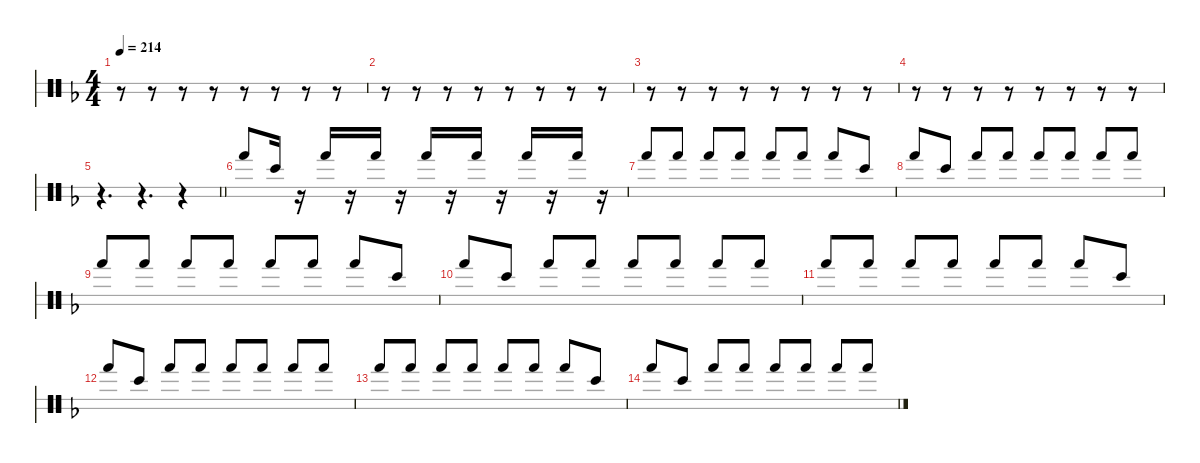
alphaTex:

\hideDynamics
\bracketExtendMode nobrackets
\singleTrackTrackNamePolicy hidden
\multiTrackTrackNamePolicy hidden
\firstSystemTrackNameMode fullname
\firstSystemTrackNameOrientation horizontal
\otherSystemsTrackNameOrientation horizontal
\track ("Bongos" "bngKit") {instrument percussion}
\staff {score 2}
\articulation defaults
\ts (4 4)
\tempo 214
\clef neutral
\ks dminor
r.8{dy p beam Down} r.8{beam Down} r.8{beam Down} r.8{beam Down} r.8{beam Down} r.8{beam Down} r.8{beam Down} r.8{beam Down} |
r.8{beam Down} r.8{beam Down} r.8{beam Down} r.8{beam Down} r.8{beam Down} r.8{beam Down} r.8{beam Down} r.8{beam Down} |
r.8{beam Down} r.8{beam Down} r.8{beam Down} r.8{beam Down} r.8{beam Down} r.8{beam Down} r.8{beam Down} r.8{beam Down} |
r.8{beam Down} r.8{beam Down} r.8{beam Down} r.8{beam Down} r.8{beam Down} r.8{beam Down} r.8{beam Down} r.8{beam Down} |
\barLineRight lightlight
r.4{d beam Down} r.4{d beam Down} r.4{beam Down} |
"Hand (hit)"{acc forcenatural}.8{dy f beam Up} "Bongo High (hit)"{acc forcenatural}.16{dy pp beam Up} r.16{beam Up} "Hand (hit)"{acc forcenatural}.16{dy p beam Up} r.16{beam Up} "Hand (hit)"{acc forcenatural}.16{dy mp beam Up} r.16{beam Up} "Hand (hit)"{acc forcenatural}.16{dy mf beam Up} r.16{beam Up} "Hand (hit)"{acc forcenatural}.16{dy mp beam Up} r.16{beam Up} "Hand (hit)"{acc forcenatural}.16{dy p beam Up} r.16{beam Up} "Hand (hit)"{acc forcenatural}.16{dy pp beam Up} r.16{beam Up} |
"Hand (hit)"{acc forcenatural}.8{dy p beam Up} "Hand (hit)"{acc forcenatural}.8{dy pp beam Up} "Hand (hit)"{acc forcenatural}.8{beam Up} "Hand (hit)"{acc forcenatural}.8{dy mp beam Up} "Hand (hit)"{acc forcenatural}.8{dy p beam Up} "Hand (hit)"{acc forcenatural}.8{beam Up} "Hand (hit)"{acc forcenatural}.8{dy mp beam Up} "Bongo High (hit)"{acc forcenatural}.8{dy mf beam Up} |
"Hand (hit)"{acc forcenatural}.8{dy f beam Up} "Bongo High (hit)"{acc forcenatural}.8{dy p beam Up} "Hand (hit)"{acc forcenatural}.8{dy pp beam Up} "Hand (hit)"{acc forcenatural}.8{dy mp beam Up} "Hand (hit)"{acc forcenatural}.8{dy p beam Up} "Hand (hit)"{acc forcenatural}.8{beam Up} "Hand (hit)"{acc forcenatural}.8{dy mp beam Up} "Hand (hit)"{acc forcenatural}.8{dy pp beam Up} |
"Hand (hit)"{acc forcenatural}.8{dy mp beam Up} "Hand (hit)"{acc forcenatural}.8{dy pp beam Up} "Hand (hit)"{acc forcenatural}.8{beam Up} "Hand (hit)"{acc forcenatural}.8{dy mp beam Up} "Hand (hit)"{acc forcenatural}.8{dy p beam Up} "Hand (hit)"{acc forcenatural}.8{beam Up} "Hand (hit)"{acc forcenatural}.8{dy mp beam Up} "Bongo High (hit)"{acc forcenatural}.8{dy mf beam Up} |
"Hand (hit)"{acc forcenatural}.8{dy f beam Up} "Bongo High (hit)"{acc forcenatural}.8{dy p beam Up} "Hand (hit)"{acc forcenatural}.8{dy pp beam Up} "Hand (hit)"{acc forcenatural}.8{dy mp beam Up} "Hand (hit)"{acc forcenatural}.8{dy p beam Up} "Hand (hit)"{acc forcenatural}.8{beam Up} "Hand (hit)"{acc forcenatural}.8{dy mp beam Up} "Hand (hit)"{acc forcenatural}.8{dy pp beam Up} |
"Hand (hit)"{acc forcenatural}.8{dy mp beam Up} "Hand (hit)"{acc forcenatural}.8{dy pp beam Up} "Hand (hit)"{acc forcenatural}.8{beam Up} "Hand (hit)"{acc forcenatural}.8{dy mp beam Up} "Hand (hit)"{acc forcenatural}.8{dy p beam Up} "Hand (hit)"{acc forcenatural}.8{beam Up} "Hand (hit)"{acc forcenatural}.8{dy mp beam Up} "Bongo High (hit)"{acc forcenatural}.8{dy mf beam Up} |
"Hand (hit)"{acc forcenatural}.8{dy f beam Up} "Bongo High (hit)"{acc forcenatural}.8{dy p beam Up} "Hand (hit)"{acc forcenatural}.8{dy pp beam Up} "Hand (hit)"{acc forcenatural}.8{dy mp beam Up} "Hand (hit)"{acc forcenatural}.8{dy p beam Up} "Hand (hit)"{acc forcenatural}.8{beam Up} "Hand (hit)"{acc forcenatural}.8{dy mp beam Up} "Hand (hit)"{acc forcenatural}.8{dy pp beam Up} |
"Hand (hit)"{acc forcenatural}.8{dy mp beam Up} "Hand (hit)"{acc forcenatural}.8{dy pp beam Up} "Hand (hit)"{acc forcenatural}.8{beam Up} "Hand (hit)"{acc forcenatural}.8{dy mp beam Up} "Hand (hit)"{acc forcenatural}.8{dy p beam Up} "Hand (hit)"{acc forcenatural}.8{beam Up} "Hand (hit)"{acc forcenatural}.8{dy mp beam Up} "Bongo High (hit)"{acc forcenatural}.8{dy mf beam Up} |
"Hand (hit)"{acc forcenatural}.8{dy f beam Up} "Bongo High (hit)"{acc forcenatural}.8{dy p beam Up} "Hand (hit)"{acc forcenatural}.8{dy pp beam Up} "Hand (hit)"{acc forcenatural}.8{dy mp beam Up} "Hand (hit)"{acc forcenatural}.8{dy p beam Up} "Hand (hit)"{acc forcenatural}.8{beam Up} "Hand (hit)"{acc forcenatural}.8{dy mp beam Up} "Hand (hit)"{acc forcenatural}.8{dy pp beam Up}
